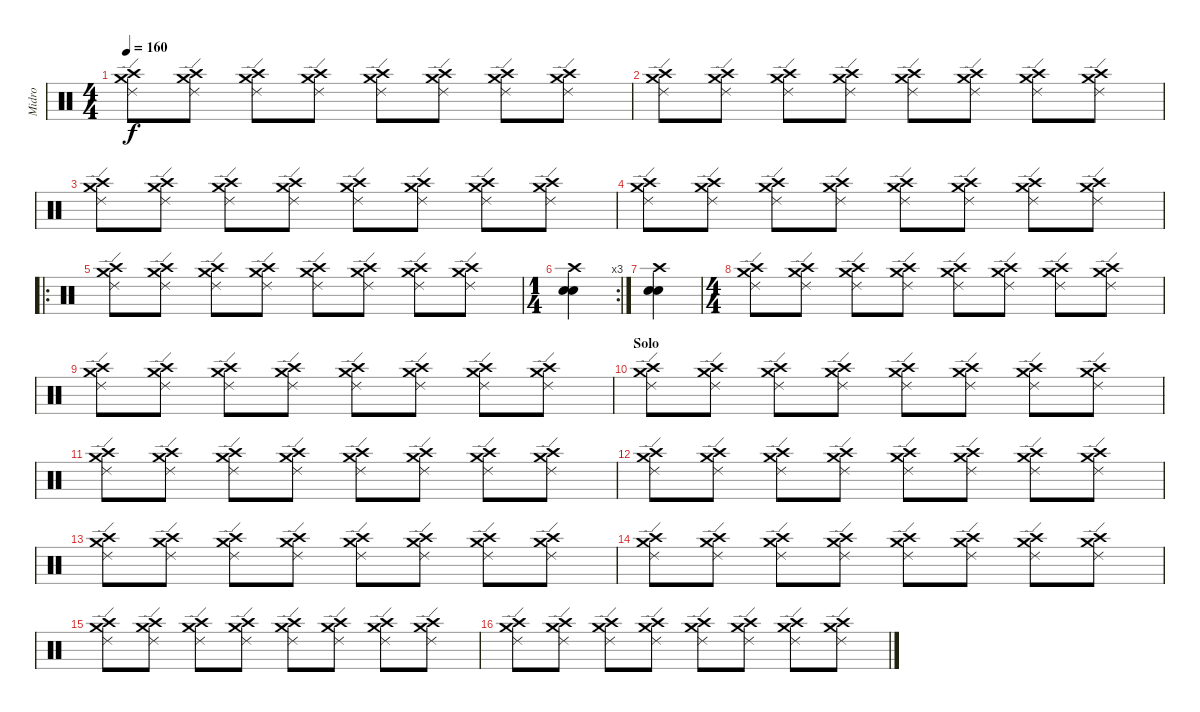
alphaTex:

\track ("Midro" "Midro") {instrument percussion}
\staff {score}
\articulation defaults
\ts (4 4)
\tempo 160
\clef neutral
\ks c
("Ride (edge) 2" "Crash medium (hit)" "Crash high (hit)").8{dy f} ("Ride (edge) 2" "Crash medium (hit)" "Crash high (hit)").8 ("Ride (edge) 2" "Crash medium (hit)" "Crash high (hit)").8 ("Ride (edge) 2" "Crash medium (hit)" "Crash high (hit)").8 ("Ride (edge) 2" "Crash medium (hit)" "Crash high (hit)").8 ("Ride (edge) 2" "Crash medium (hit)" "Crash high (hit)").8 ("Ride (edge) 2" "Crash medium (hit)" "Crash high (hit)").8 ("Ride (edge) 2" "Crash medium (hit)" "Crash high (hit)").8 |
("Ride (edge) 2" "Crash medium (hit)" "Crash high (hit)").8 ("Ride (edge) 2" "Crash medium (hit)" "Crash high (hit)").8 ("Ride (edge) 2" "Crash medium (hit)" "Crash high (hit)").8 ("Ride (edge) 2" "Crash medium (hit)" "Crash high (hit)").8 ("Ride (edge) 2" "Crash medium (hit)" "Crash high (hit)").8 ("Ride (edge) 2" "Crash medium (hit)" "Crash high (hit)").8 ("Ride (edge) 2" "Crash medium (hit)" "Crash high (hit)").8 ("Ride (edge) 2" "Crash medium (hit)" "Crash high (hit)").8 |
("Ride (edge) 2" "Crash medium (hit)" "Crash high (hit)").8 ("Ride (edge) 2" "Crash medium (hit)" "Crash high (hit)").8 ("Ride (edge) 2" "Crash medium (hit)" "Crash high (hit)").8 ("Ride (edge) 2" "Crash medium (hit)" "Crash high (hit)").8 ("Ride (edge) 2" "Crash medium (hit)" "Crash high (hit)").8 ("Ride (edge) 2" "Crash medium (hit)" "Crash high (hit)").8 ("Ride (edge) 2" "Crash medium (hit)" "Crash high (hit)").8 ("Ride (edge) 2" "Crash medium (hit)" "Crash high (hit)").8 |
("Ride (edge) 2" "Crash medium (hit)" "Crash high (hit)").8 ("Ride (edge) 2" "Crash medium (hit)" "Crash high (hit)").8 ("Ride (edge) 2" "Crash medium (hit)" "Crash high (hit)").8 ("Ride (edge) 2" "Crash medium (hit)" "Crash high (hit)").8 ("Ride (edge) 2" "Crash medium (hit)" "Crash high (hit)").8 ("Ride (edge) 2" "Crash medium (hit)" "Crash high (hit)").8 ("Ride (edge) 2" "Crash medium (hit)" "Crash high (hit)").8 ("Ride (edge) 2" "Crash medium (hit)" "Crash high (hit)").8 |
\ro
("Ride (edge) 2" "Crash medium (hit)" "Crash high (hit)").8 ("Ride (edge) 2" "Crash medium (hit)" "Crash high (hit)").8 ("Ride (edge) 2" "Crash medium (hit)" "Crash high (hit)").8 ("Ride (edge) 2" "Crash medium (hit)" "Crash high (hit)").8 ("Ride (edge) 2" "Crash medium (hit)" "Crash high (hit)").8 ("Ride (edge) 2" "Crash medium (hit)" "Crash high (hit)").8 ("Ride (edge) 2" "Crash medium (hit)" "Crash high (hit)").8 ("Ride (edge) 2" "Crash medium (hit)" "Crash high (hit)").8 |
\rc 3
\ts (1 4)
("Crash high (hit)" "Snare (hit) 2" "Electric Snare (hit)").4 |
("Crash high (hit)" "Snare (hit) 2" "Electric Snare (hit)").4 |
\ts (4 4)
("Ride (edge) 2" "Crash medium (hit)" "Crash high (hit)").8 ("Ride (edge) 2" "Crash medium (hit)" "Crash high (hit)").8 ("Ride (edge) 2" "Crash medium (hit)" "Crash high (hit)").8 ("Ride (edge) 2" "Crash medium (hit)" "Crash high (hit)").8 ("Ride (edge) 2" "Crash medium (hit)" "Crash high (hit)").8 ("Ride (edge) 2" "Crash medium (hit)" "Crash high (hit)").8 ("Ride (edge) 2" "Crash medium (hit)" "Crash high (hit)").8 ("Ride (edge) 2" "Crash medium (hit)" "Crash high (hit)").8 |
("Ride (edge) 2" "Crash medium (hit)" "Crash high (hit)").8 ("Ride (edge) 2" "Crash medium (hit)" "Crash high (hit)").8 ("Ride (edge) 2" "Crash medium (hit)" "Crash high (hit)").8 ("Ride (edge) 2" "Crash medium (hit)" "Crash high (hit)").8 ("Ride (edge) 2" "Crash medium (hit)" "Crash high (hit)").8 ("Ride (edge) 2" "Crash medium (hit)" "Crash high (hit)").8 ("Ride (edge) 2" "Crash medium (hit)" "Crash high (hit)").8 ("Ride (edge) 2" "Crash medium (hit)" "Crash high (hit)").8 |
\section ("" "Solo")
("Ride (edge) 2" "Crash medium (hit)" "Crash high (hit)").8 ("Ride (edge) 2" "Crash medium (hit)" "Crash high (hit)").8 ("Ride (edge) 2" "Crash medium (hit)" "Crash high (hit)").8 ("Ride (edge) 2" "Crash medium (hit)" "Crash high (hit)").8 ("Ride (edge) 2" "Crash medium (hit)" "Crash high (hit)").8 ("Ride (edge) 2" "Crash medium (hit)" "Crash high (hit)").8 ("Ride (edge) 2" "Crash medium (hit)" "Crash high (hit)").8 ("Ride (edge) 2" "Crash medium (hit)" "Crash high (hit)").8 |
("Ride (edge) 2" "Crash medium (hit)" "Crash high (hit)").8 ("Ride (edge) 2" "Crash medium (hit)" "Crash high (hit)").8 ("Ride (edge) 2" "Crash medium (hit)" "Crash high (hit)").8 ("Ride (edge) 2" "Crash medium (hit)" "Crash high (hit)").8 ("Ride (edge) 2" "Crash medium (hit)" "Crash high (hit)").8 ("Ride (edge) 2" "Crash medium (hit)" "Crash high (hit)").8 ("Ride (edge) 2" "Crash medium (hit)" "Crash high (hit)").8 ("Ride (edge) 2" "Crash medium (hit)" "Crash high (hit)").8 |
("Ride (edge) 2" "Crash medium (hit)" "Crash high (hit)").8 ("Ride (edge) 2" "Crash medium (hit)" "Crash high (hit)").8 ("Ride (edge) 2" "Crash medium (hit)" "Crash high (hit)").8 ("Ride (edge) 2" "Crash medium (hit)" "Crash high (hit)").8 ("Ride (edge) 2" "Crash medium (hit)" "Crash high (hit)").8 ("Ride (edge) 2" "Crash medium (hit)" "Crash high (hit)").8 ("Ride (edge) 2" "Crash medium (hit)" "Crash high (hit)").8 ("Ride (edge) 2" "Crash medium (hit)" "Crash high (hit)").8 |
("Ride (edge) 2" "Crash medium (hit)" "Crash high (hit)").8 ("Ride (edge) 2" "Crash medium (hit)" "Crash high (hit)").8 ("Ride (edge) 2" "Crash medium (hit)" "Crash high (hit)").8 ("Ride (edge) 2" "Crash medium (hit)" "Crash high (hit)").8 ("Ride (edge) 2" "Crash medium (hit)" "Crash high (hit)").8 ("Ride (edge) 2" "Crash medium (hit)" "Crash high (hit)").8 ("Ride (edge) 2" "Crash medium (hit)" "Crash high (hit)").8 ("Ride (edge) 2" "Crash medium (hit)" "Crash high (hit)").8 |
("Ride (edge) 2" "Crash medium (hit)" "Crash high (hit)").8 ("Ride (edge) 2" "Crash medium (hit)" "Crash high (hit)").8 ("Ride (edge) 2" "Crash medium (hit)" "Crash high (hit)").8 ("Ride (edge) 2" "Crash medium (hit)" "Crash high (hit)").8 ("Ride (edge) 2" "Crash medium (hit)" "Crash high (hit)").8 ("Ride (edge) 2" "Crash medium (hit)" "Crash high (hit)").8 ("Ride (edge) 2" "Crash medium (hit)" "Crash high (hit)").8 ("Ride (edge) 2" "Crash medium (hit)" "Crash high (hit)").8 |
("Ride (edge) 2" "Crash medium (hit)" "Crash high (hit)").8 ("Ride (edge) 2" "Crash medium (hit)" "Crash high (hit)").8 ("Ride (edge) 2" "Crash medium (hit)" "Crash high (hit)").8 ("Ride (edge) 2" "Crash medium (hit)" "Crash high (hit)").8 ("Ride (edge) 2" "Crash medium (hit)" "Crash high (hit)").8 ("Ride (edge) 2" "Crash medium (hit)" "Crash high (hit)").8 ("Ride (edge) 2" "Crash medium (hit)" "Crash high (hit)").8 ("Ride (edge) 2" "Crash medium (hit)" "Crash high (hit)").8 |
("Ride (edge) 2" "Crash medium (hit)" "Crash high (hit)").8 ("Ride (edge) 2" "Crash medium (hit)" "Crash high (hit)").8 ("Ride (edge) 2" "Crash medium (hit)" "Crash high (hit)").8 ("Ride (edge) 2" "Crash medium (hit)" "Crash high (hit)").8 ("Ride (edge) 2" "Crash medium (hit)" "Crash high (hit)").8 ("Ride (edge) 2" "Crash medium (hit)" "Crash high (hit)").8 ("Ride (edge) 2" "Crash medium (hit)" "Crash high (hit)").8 ("Ride (edge) 2" "Crash medium (hit)" "Crash high (hit)").8
